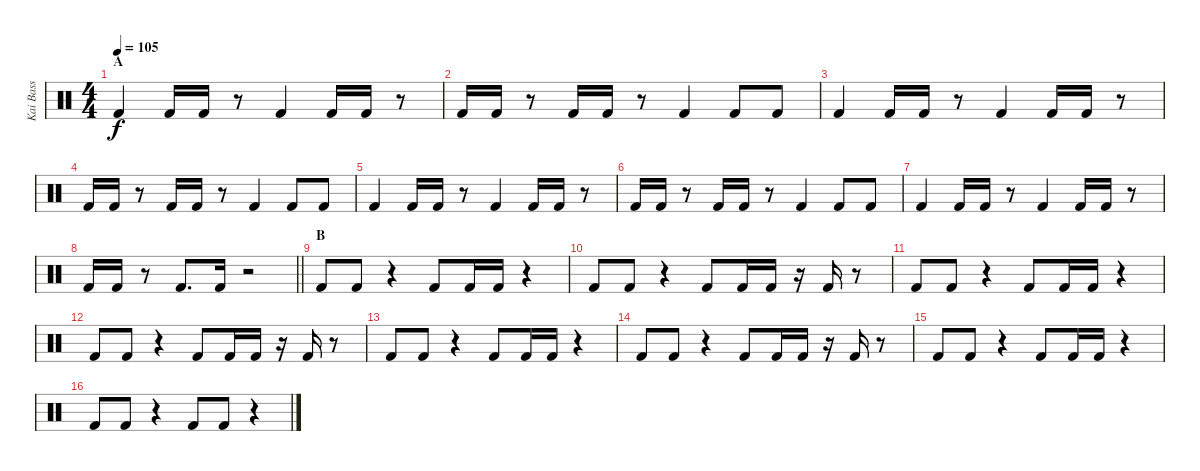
\track ("Kai Bass" "Kai Bass") {instrument percussion}
\staff {score}
\articulation defaults
\ts (4 4)
\section ("" "A")
\tempo 105
\clef neutral
\ks c "Kick (hit) 2".4{dy f} "Kick (hit) 2".16 "Kick (hit) 2".16
r.8 "Kick (hit) 2".4 "Kick (hit) 2".16 "Kick (hit) 2".16 r.8 |
"Kick (hit) 2".16 "Kick (hit) 2".16 r.8 "Kick (hit) 2".16 "Kick (hit) 2".16 r.8 "Kick (hit) 2".4 "Kick (hit) 2".8 "Kick (hit) 2".8 |
"Kick (hit) 2".4 "Kick (hit) 2".16 "Kick (hit) 2".16 r.8 "Kick (hit) 2".4 "Kick (hit) 2".16 "Kick (hit) 2".16 r.8 |
"Kick (hit) 2".16 "Kick (hit) 2".16 r.8 "Kick (hit) 2".16 "Kick (hit) 2".16 r.8 "Kick (hit) 2".4 "Kick (hit) 2".8 "Kick (hit) 2".8 |
"Kick (hit) 2".4 "Kick (hit) 2".16 "Kick (hit) 2".16 r.8 "Kick (hit) 2".4 "Kick (hit) 2".16 "Kick (hit) 2".16 r.8 |
"Kick (hit) 2".16 "Kick (hit) 2".16 r.8 "Kick (hit) 2".16 "Kick (hit) 2".16 r.8 "Kick (hit) 2".4 "Kick (hit) 2".8 "Kick (hit) 2".8 |
"Kick (hit) 2".4 "Kick (hit) 2".16 "Kick (hit) 2".16 r.8 "Kick (hit) 2".4 "Kick (hit) 2".16 "Kick (hit) 2".16 r.8 |
\barLineRight lightlight "Kick (hit) 2".16 "Kick (hit) 2".16
r.8 "Kick (hit) 2".8{d} "Kick (hit) 2".16 r.2 |
\section ("" "B")
"Kick (hit) 2".8 "Kick (hit) 2".8 r.4 "Kick (hit) 2".8 "Kick (hit) 2".16 "Kick (hit) 2".16 r.4 |
"Kick (hit) 2".8 "Kick (hit) 2".8 r.4 "Kick (hit) 2".8 "Kick (hit) 2".16 "Kick (hit) 2".16 r.16 "Kick (hit) 2".16 r.8 |
"Kick (hit) 2".8 "Kick (hit) 2".8 r.4 "Kick (hit) 2".8 "Kick (hit) 2".16 "Kick (hit) 2".16 r.4 |
"Kick (hit) 2".8 "Kick (hit) 2".8 r.4 "Kick (hit) 2".8 "Kick (hit) 2".16 "Kick (hit) 2".16 r.16 "Kick (hit) 2".16 r.8 |
"Kick (hit) 2".8 "Kick (hit) 2".8 r.4 "Kick (hit) 2".8 "Kick (hit) 2".16 "Kick (hit) 2".16 r.4 |
"Kick (hit) 2".8 "Kick (hit) 2".8 r.4 "Kick (hit) 2".8 "Kick (hit) 2".16 "Kick (hit) 2".16 r.16 "Kick (hit) 2".16 r.8 |
"Kick (hit) 2".8 "Kick (hit) 2".8 r.4 "Kick (hit) 2".8 "Kick (hit) 2".16 "Kick (hit) 2".16 r.4 |
"Kick (hit) 2".8 "Kick (hit) 2".8 r.4 "Kick (hit) 2".8 "Kick (hit) 2".8 r.4
